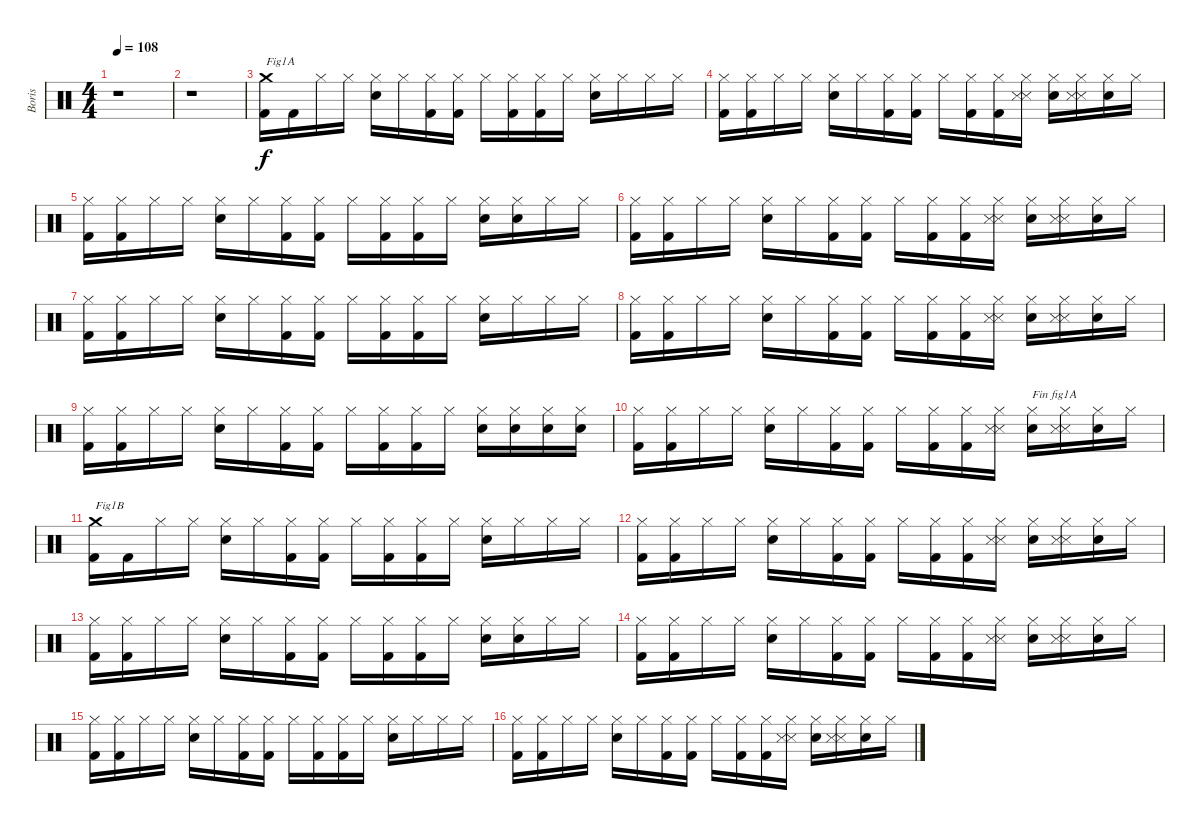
\track ("Boris" "Boris") {instrument percussion}
\staff {score}
\articulation defaults
\ts (4 4)
\tempo 108
\clef neutral
\ks c
r.1{dy f} |
r.1 |
("Kick (hit) 2" "Crash medium (hit)").16{txt "Fig1A"} "Kick (hit) 2".16 "Hi-Hat (closed)".16 "Hi-Hat (closed)".16 ("Electric Snare (hit)" "Hi-Hat (closed)").16 "Hi-Hat (closed)".16 ("Kick (hit) 2" "Hi-Hat (closed)").16 ("Kick (hit) 2" "Hi-Hat (closed)").16 "Hi-Hat (closed)".16 ("Kick (hit) 2" "Hi-Hat (closed)").16 ("Kick (hit) 2" "Hi-Hat (closed)").16 "Hi-Hat (closed)".16 ("Electric Snare (hit)" "Hi-Hat (closed)").16 "Hi-Hat (closed)".16 "Hi-Hat (closed)".16 "Hi-Hat (closed)".16 |
("Kick (hit) 2" "Hi-Hat (closed)").16 ("Kick (hit) 2" "Hi-Hat (closed)").16 "Hi-Hat (closed)".16 "Hi-Hat (closed)".16 ("Electric Snare (hit)" "Hi-Hat (closed)").16 "Hi-Hat (closed)".16 ("Kick (hit) 2" "Hi-Hat (closed)").16 ("Kick (hit) 2" "Hi-Hat (closed)").16 "Hi-Hat (closed)".16 ("Kick (hit) 2" "Hi-Hat (closed)").16 ("Kick (hit) 2" "Hi-Hat (closed)").16 ("Metronome (hit)" "Snare (side stick) 3" "Hi-Hat (closed)").16 ("Electric Snare (hit)" "Hi-Hat (closed)").16 ("Metronome (hit)" "Snare (side stick) 3" "Hi-Hat (closed)").16 ("Electric Snare (hit)" "Hi-Hat (closed)").16 "Hi-Hat (closed)".16 |
("Kick (hit) 2" "Hi-Hat (closed)").16 ("Kick (hit) 2" "Hi-Hat (closed)").16 "Hi-Hat (closed)".16 "Hi-Hat (closed)".16 ("Electric Snare (hit)" "Hi-Hat (closed)").16 "Hi-Hat (closed)".16 ("Kick (hit) 2" "Hi-Hat (closed)").16 ("Kick (hit) 2" "Hi-Hat (closed)").16 "Hi-Hat (closed)".16 ("Kick (hit) 2" "Hi-Hat (closed)").16 ("Kick (hit) 2" "Hi-Hat (closed)").16 "Hi-Hat (closed)".16 ("Electric Snare (hit)" "Hi-Hat (closed)").16 ("Electric Snare (hit)" "Hi-Hat (closed)").16 "Hi-Hat (closed)".16 "Hi-Hat (closed)".16 |
("Kick (hit) 2" "Hi-Hat (closed)").16 ("Kick (hit) 2" "Hi-Hat (closed)").16 "Hi-Hat (closed)".16 "Hi-Hat (closed)".16 ("Electric Snare (hit)" "Hi-Hat (closed)").16 "Hi-Hat (closed)".16 ("Kick (hit) 2" "Hi-Hat (closed)").16 ("Kick (hit) 2" "Hi-Hat (closed)").16 "Hi-Hat (closed)".16 ("Kick (hit) 2" "Hi-Hat (closed)").16 ("Kick (hit) 2" "Hi-Hat (closed)").16 ("Metronome (hit)" "Snare (side stick) 3" "Hi-Hat (closed)").16 ("Electric Snare (hit)" "Hi-Hat (closed)").16 ("Metronome (hit)" "Snare (side stick) 3" "Hi-Hat (closed)").16 ("Electric Snare (hit)" "Hi-Hat (closed)").16 "Hi-Hat (closed)".16 |
("Kick (hit) 2" "Hi-Hat (closed)").16 ("Kick (hit) 2" "Hi-Hat (closed)").16 "Hi-Hat (closed)".16 "Hi-Hat (closed)".16 ("Electric Snare (hit)" "Hi-Hat (closed)").16 "Hi-Hat (closed)".16 ("Kick (hit) 2" "Hi-Hat (closed)").16 ("Kick (hit) 2" "Hi-Hat (closed)").16 "Hi-Hat (closed)".16 ("Kick (hit) 2" "Hi-Hat (closed)").16 ("Kick (hit) 2" "Hi-Hat (closed)").16 "Hi-Hat (closed)".16 ("Electric Snare (hit)" "Hi-Hat (closed)").16 "Hi-Hat (closed)".16 "Hi-Hat (closed)".16 "Hi-Hat (closed)".16 |
("Kick (hit) 2" "Hi-Hat (closed)").16 ("Kick (hit) 2" "Hi-Hat (closed)").16 "Hi-Hat (closed)".16 "Hi-Hat (closed)".16 ("Electric Snare (hit)" "Hi-Hat (closed)").16 "Hi-Hat (closed)".16 ("Kick (hit) 2" "Hi-Hat (closed)").16 ("Kick (hit) 2" "Hi-Hat (closed)").16 "Hi-Hat (closed)".16 ("Kick (hit) 2" "Hi-Hat (closed)").16 ("Kick (hit) 2" "Hi-Hat (closed)").16 ("Metronome (hit)" "Snare (side stick) 3" "Hi-Hat (closed)").16 ("Electric Snare (hit)" "Hi-Hat (closed)").16 ("Metronome (hit)" "Snare (side stick) 3" "Hi-Hat (closed)").16 ("Electric Snare (hit)" "Hi-Hat (closed)").16 "Hi-Hat (closed)".16 |
("Kick (hit) 2" "Hi-Hat (closed)").16 ("Kick (hit) 2" "Hi-Hat (closed)").16 "Hi-Hat (closed)".16 "Hi-Hat (closed)".16 ("Electric Snare (hit)" "Hi-Hat (closed)").16 "Hi-Hat (closed)".16 ("Kick (hit) 2" "Hi-Hat (closed)").16 ("Kick (hit) 2" "Hi-Hat (closed)").16 "Hi-Hat (closed)".16 ("Kick (hit) 2" "Hi-Hat (closed)").16 ("Kick (hit) 2" "Hi-Hat (closed)").16 "Hi-Hat (closed)".16 ("Electric Snare (hit)" "Hi-Hat (closed)").16 ("Electric Snare (hit)" "Hi-Hat (closed)").16 ("Electric Snare (hit)" "Hi-Hat (closed)").16 ("Electric Snare (hit)" "Hi-Hat (closed)").16 |
("Kick (hit) 2" "Hi-Hat (closed)").16 ("Kick (hit) 2" "Hi-Hat (closed)").16 "Hi-Hat (closed)".16 "Hi-Hat (closed)".16 ("Electric Snare (hit)" "Hi-Hat (closed)").16 "Hi-Hat (closed)".16 ("Kick (hit) 2" "Hi-Hat (closed)").16 ("Kick (hit) 2" "Hi-Hat (closed)").16 "Hi-Hat (closed)".16 ("Kick (hit) 2" "Hi-Hat (closed)").16 ("Kick (hit) 2" "Hi-Hat (closed)").16 ("Metronome (hit)" "Snare (side stick) 3" "Hi-Hat (closed)").16 ("Electric Snare (hit)" "Hi-Hat (closed)").16{txt "Fin fig1A"} ("Metronome (hit)" "Snare (side stick) 3" "Hi-Hat (closed)").16 ("Electric Snare (hit)" "Hi-Hat (closed)").16 "Hi-Hat (closed)".16 |
("Kick (hit) 2" "Crash medium (hit)").16{txt "Fig1B"} "Kick (hit) 2".16 "Hi-Hat (closed)".16 "Hi-Hat (closed)".16 ("Electric Snare (hit)" "Hi-Hat (closed)").16 "Hi-Hat (closed)".16 ("Kick (hit) 2" "Hi-Hat (closed)").16 ("Kick (hit) 2" "Hi-Hat (closed)").16 "Hi-Hat (closed)".16 ("Kick (hit) 2" "Hi-Hat (closed)").16 ("Kick (hit) 2" "Hi-Hat (closed)").16 "Hi-Hat (closed)".16 ("Electric Snare (hit)" "Hi-Hat (closed)").16 "Hi-Hat (closed)".16 "Hi-Hat (closed)".16 "Hi-Hat (closed)".16 |
("Kick (hit) 2" "Hi-Hat (closed)").16 ("Kick (hit) 2" "Hi-Hat (closed)").16 "Hi-Hat (closed)".16 "Hi-Hat (closed)".16 ("Electric Snare (hit)" "Hi-Hat (closed)").16 "Hi-Hat (closed)".16 ("Kick (hit) 2" "Hi-Hat (closed)").16 ("Kick (hit) 2" "Hi-Hat (closed)").16 "Hi-Hat (closed)".16 ("Kick (hit) 2" "Hi-Hat (closed)").16 ("Kick (hit) 2" "Hi-Hat (closed)").16 ("Metronome (hit)" "Snare (side stick) 3" "Hi-Hat (closed)").16 ("Electric Snare (hit)" "Hi-Hat (closed)").16 ("Metronome (hit)" "Snare (side stick) 3" "Hi-Hat (closed)").16 ("Electric Snare (hit)" "Hi-Hat (closed)").16 "Hi-Hat (closed)".16 |
("Kick (hit) 2" "Hi-Hat (closed)").16 ("Kick (hit) 2" "Hi-Hat (closed)").16 "Hi-Hat (closed)".16 "Hi-Hat (closed)".16 ("Electric Snare (hit)" "Hi-Hat (closed)").16 "Hi-Hat (closed)".16 ("Kick (hit) 2" "Hi-Hat (closed)").16 ("Kick (hit) 2" "Hi-Hat (closed)").16 "Hi-Hat (closed)".16 ("Kick (hit) 2" "Hi-Hat (closed)").16 ("Kick (hit) 2" "Hi-Hat (closed)").16 "Hi-Hat (closed)".16 ("Electric Snare (hit)" "Hi-Hat (closed)").16 ("Electric Snare (hit)" "Hi-Hat (closed)").16 "Hi-Hat (closed)".16 "Hi-Hat (closed)".16 |
("Kick (hit) 2" "Hi-Hat (closed)").16 ("Kick (hit) 2" "Hi-Hat (closed)").16 "Hi-Hat (closed)".16 "Hi-Hat (closed)".16 ("Electric Snare (hit)" "Hi-Hat (closed)").16 "Hi-Hat (closed)".16 ("Kick (hit) 2" "Hi-Hat (closed)").16 ("Kick (hit) 2" "Hi-Hat (closed)").16 "Hi-Hat (closed)".16 ("Kick (hit) 2" "Hi-Hat (closed)").16 ("Kick (hit) 2" "Hi-Hat (closed)").16 ("Metronome (hit)" "Snare (side stick) 3" "Hi-Hat (closed)").16 ("Electric Snare (hit)" "Hi-Hat (closed)").16 ("Metronome (hit)" "Snare (side stick) 3" "Hi-Hat (closed)").16 ("Electric Snare (hit)" "Hi-Hat (closed)").16 "Hi-Hat (closed)".16 |
("Kick (hit) 2" "Hi-Hat (closed)").16 ("Kick (hit) 2" "Hi-Hat (closed)").16 "Hi-Hat (closed)".16 "Hi-Hat (closed)".16 ("Electric Snare (hit)" "Hi-Hat (closed)").16 "Hi-Hat (closed)".16 ("Kick (hit) 2" "Hi-Hat (closed)").16 ("Kick (hit) 2" "Hi-Hat (closed)").16 "Hi-Hat (closed)".16 ("Kick (hit) 2" "Hi-Hat (closed)").16 ("Kick (hit) 2" "Hi-Hat (closed)").16 "Hi-Hat (closed)".16 ("Electric Snare (hit)" "Hi-Hat (closed)").16 "Hi-Hat (closed)".16 "Hi-Hat (closed)".16 "Hi-Hat (closed)".16 |
("Kick (hit) 2" "Hi-Hat (closed)").16 ("Kick (hit) 2" "Hi-Hat (closed)").16 "Hi-Hat (closed)".16 "Hi-Hat (closed)".16 ("Electric Snare (hit)" "Hi-Hat (closed)").16 "Hi-Hat (closed)".16 ("Kick (hit) 2" "Hi-Hat (closed)").16 ("Kick (hit) 2" "Hi-Hat (closed)").16 "Hi-Hat (closed)".16 ("Kick (hit) 2" "Hi-Hat (closed)").16 ("Kick (hit) 2" "Hi-Hat (closed)").16 ("Metronome (hit)" "Snare (side stick) 3" "Hi-Hat (closed)").16 ("Electric Snare (hit)" "Hi-Hat (closed)").16 ("Metronome (hit)" "Snare (side stick) 3" "Hi-Hat (closed)").16 ("Electric Snare (hit)" "Hi-Hat (closed)").16 "Hi-Hat (closed)".16
